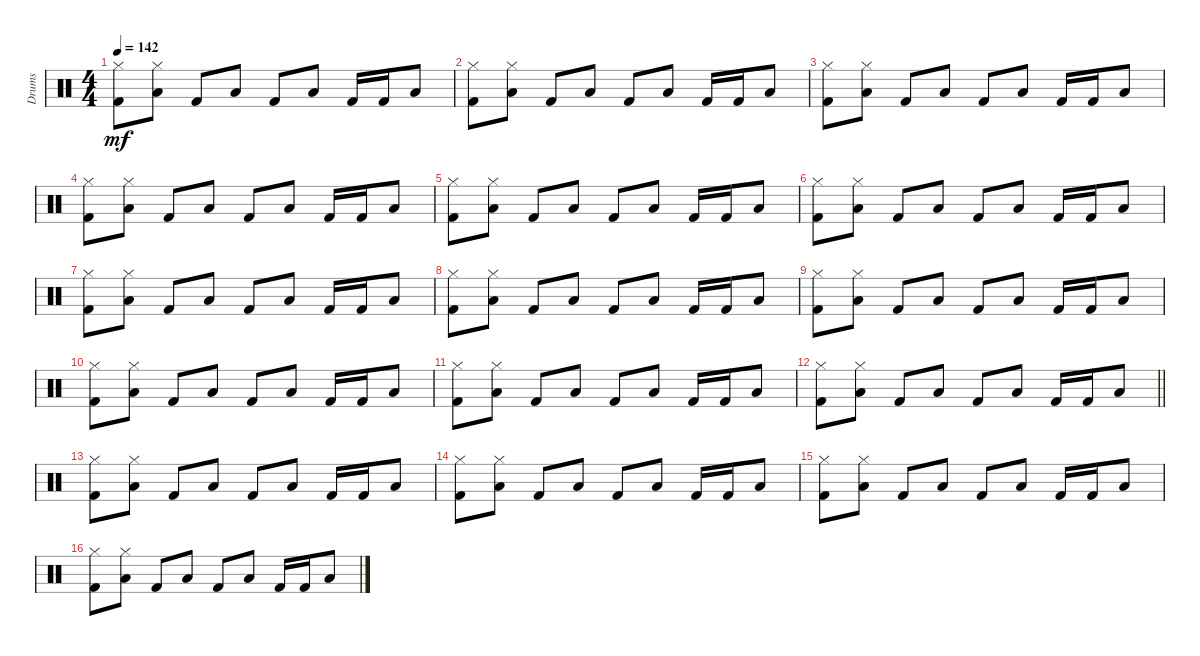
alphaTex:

\track ("Drums" "Drums") {instrument percussion}
\staff {score}
\articulation defaults
\ts (4 4)
\tempo 142
\clef neutral
\ks c
("Hi-Hat (closed)" "Kick (hit) 2").8{dy mf} ("Hi-Hat (closed)" "Low Tom (hit)").8 "Kick (hit) 2".8 "Low Tom (hit)".8 "Kick (hit) 2".8 "Low Tom (hit)".8 "Kick (hit) 2".16 "Kick (hit) 2".16 "Low Tom (hit)".8 |
("Hi-Hat (closed)" "Kick (hit) 2").8 ("Hi-Hat (closed)" "Low Tom (hit)").8 "Kick (hit) 2".8 "Low Tom (hit)".8 "Kick (hit) 2".8 "Low Tom (hit)".8 "Kick (hit) 2".16 "Kick (hit) 2".16 "Low Tom (hit)".8 |
("Hi-Hat (closed)" "Kick (hit) 2").8 ("Hi-Hat (closed)" "Low Tom (hit)").8 "Kick (hit) 2".8 "Low Tom (hit)".8 "Kick (hit) 2".8 "Low Tom (hit)".8 "Kick (hit) 2".16 "Kick (hit) 2".16 "Low Tom (hit)".8 |
("Hi-Hat (closed)" "Kick (hit) 2").8 ("Hi-Hat (closed)" "Low Tom (hit)").8 "Kick (hit) 2".8 "Low Tom (hit)".8 "Kick (hit) 2".8 "Low Tom (hit)".8 "Kick (hit) 2".16 "Kick (hit) 2".16 "Low Tom (hit)".8 |
("Hi-Hat (closed)" "Kick (hit) 2").8 ("Hi-Hat (closed)" "Low Tom (hit)").8 "Kick (hit) 2".8 "Low Tom (hit)".8 "Kick (hit) 2".8 "Low Tom (hit)".8 "Kick (hit) 2".16 "Kick (hit) 2".16 "Low Tom (hit)".8 |
("Hi-Hat (closed)" "Kick (hit) 2").8 ("Hi-Hat (closed)" "Low Tom (hit)").8 "Kick (hit) 2".8 "Low Tom (hit)".8 "Kick (hit) 2".8 "Low Tom (hit)".8 "Kick (hit) 2".16 "Kick (hit) 2".16 "Low Tom (hit)".8 |
("Hi-Hat (closed)" "Kick (hit) 2").8 ("Hi-Hat (closed)" "Low Tom (hit)").8 "Kick (hit) 2".8 "Low Tom (hit)".8 "Kick (hit) 2".8 "Low Tom (hit)".8 "Kick (hit) 2".16 "Kick (hit) 2".16 "Low Tom (hit)".8 |
("Hi-Hat (closed)" "Kick (hit) 2").8 ("Hi-Hat (closed)" "Low Tom (hit)").8 "Kick (hit) 2".8 "Low Tom (hit)".8 "Kick (hit) 2".8 "Low Tom (hit)".8 "Kick (hit) 2".16 "Kick (hit) 2".16 "Low Tom (hit)".8 |
("Hi-Hat (closed)" "Kick (hit) 2").8 ("Hi-Hat (closed)" "Low Tom (hit)").8 "Kick (hit) 2".8 "Low Tom (hit)".8 "Kick (hit) 2".8 "Low Tom (hit)".8 "Kick (hit) 2".16 "Kick (hit) 2".16 "Low Tom (hit)".8 |
("Hi-Hat (closed)" "Kick (hit) 2").8 ("Hi-Hat (closed)" "Low Tom (hit)").8 "Kick (hit) 2".8 "Low Tom (hit)".8 "Kick (hit) 2".8 "Low Tom (hit)".8 "Kick (hit) 2".16 "Kick (hit) 2".16 "Low Tom (hit)".8 |
("Hi-Hat (closed)" "Kick (hit) 2").8 ("Hi-Hat (closed)" "Low Tom (hit)").8 "Kick (hit) 2".8 "Low Tom (hit)".8 "Kick (hit) 2".8 "Low Tom (hit)".8 "Kick (hit) 2".16 "Kick (hit) 2".16 "Low Tom (hit)".8 |
\barLineRight lightlight
("Hi-Hat (closed)" "Kick (hit) 2").8 ("Hi-Hat (closed)" "Low Tom (hit)").8 "Kick (hit) 2".8 "Low Tom (hit)".8 "Kick (hit) 2".8 "Low Tom (hit)".8 "Kick (hit) 2".16 "Kick (hit) 2".16 "Low Tom (hit)".8 |
\section ("" "")
("Hi-Hat (closed)" "Kick (hit) 2").8 ("Hi-Hat (closed)" "Low Tom (hit)").8 "Kick (hit) 2".8 "Low Tom (hit)".8 "Kick (hit) 2".8 "Low Tom (hit)".8 "Kick (hit) 2".16 "Kick (hit) 2".16 "Low Tom (hit)".8 |
("Hi-Hat (closed)" "Kick (hit) 2").8 ("Hi-Hat (closed)" "Low Tom (hit)").8 "Kick (hit) 2".8 "Low Tom (hit)".8 "Kick (hit) 2".8 "Low Tom (hit)".8 "Kick (hit) 2".16 "Kick (hit) 2".16 "Low Tom (hit)".8 |
("Hi-Hat (closed)" "Kick (hit) 2").8 ("Hi-Hat (closed)" "Low Tom (hit)").8 "Kick (hit) 2".8 "Low Tom (hit)".8 "Kick (hit) 2".8 "Low Tom (hit)".8 "Kick (hit) 2".16 "Kick (hit) 2".16 "Low Tom (hit)".8 |
("Hi-Hat (closed)" "Kick (hit) 2").8 ("Hi-Hat (closed)" "Low Tom (hit)").8 "Kick (hit) 2".8 "Low Tom (hit)".8 "Kick (hit) 2".8 "Low Tom (hit)".8 "Kick (hit) 2".16 "Kick (hit) 2".16 "Low Tom (hit)".8
